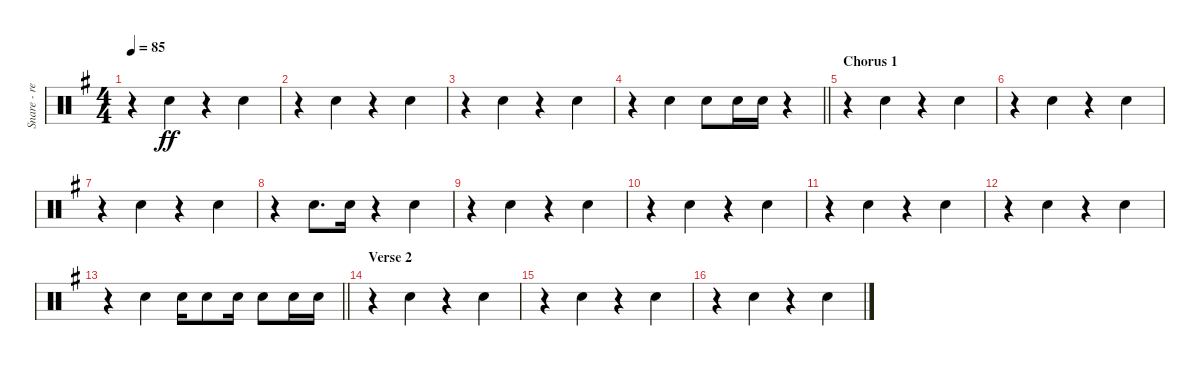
\track ("Snare - reverb" "Snare - re") {instrument percussion}
\staff {score}
\articulation defaults
\ts (4 4)
\tempo 85
\clef neutral
\ks g
r.4{dy ff beam merge} "Snare (hit) 2".4 r.4{beam merge} "Snare (hit) 2".4 |
r.4{beam merge} "Snare (hit) 2".4 r.4{beam merge} "Snare (hit) 2".4 |
r.4{beam merge} "Snare (hit) 2".4 r.4{beam merge} "Snare (hit) 2".4 |
\barLineRight lightlight
r.4{beam merge} "Snare (hit) 2".4 "Snare (hit) 2".8 "Snare (hit) 2".16 "Snare (hit) 2".16 r.4 |
\section ("" "Chorus 1")
r.4{beam merge} "Snare (hit) 2".4 r.4{beam merge} "Snare (hit) 2".4 |
r.4{beam merge} "Snare (hit) 2".4 r.4{beam merge} "Snare (hit) 2".4 |
r.4{beam merge} "Snare (hit) 2".4 r.4{beam merge} "Snare (hit) 2".4 |
r.4 "Snare (hit) 2".8{d} "Snare (hit) 2".16 r.4{beam merge} "Snare (hit) 2".4 |
r.4{beam merge} "Snare (hit) 2".4 r.4{beam merge} "Snare (hit) 2".4 |
r.4{beam merge} "Snare (hit) 2".4 r.4{beam merge} "Snare (hit) 2".4 |
r.4{beam merge} "Snare (hit) 2".4 r.4{beam merge} "Snare (hit) 2".4 |
r.4{beam merge} "Snare (hit) 2".4 r.4{beam merge} "Snare (hit) 2".4 |
\barLineRight lightlight
r.4{beam merge} "Snare (hit) 2".4 "Snare (hit) 2".16 "Snare (hit) 2".8 "Snare (hit) 2".16 "Snare (hit) 2".8 "Snare (hit) 2".16 "Snare (hit) 2".16 |
\section ("" "Verse 2")
r.4{beam merge} "Snare (hit) 2".4 r.4{beam merge} "Snare (hit) 2".4 |
r.4{beam merge} "Snare (hit) 2".4 r.4{beam merge} "Snare (hit) 2".4 |
r.4{beam merge} "Snare (hit) 2".4 r.4{beam merge} "Snare (hit) 2".4
